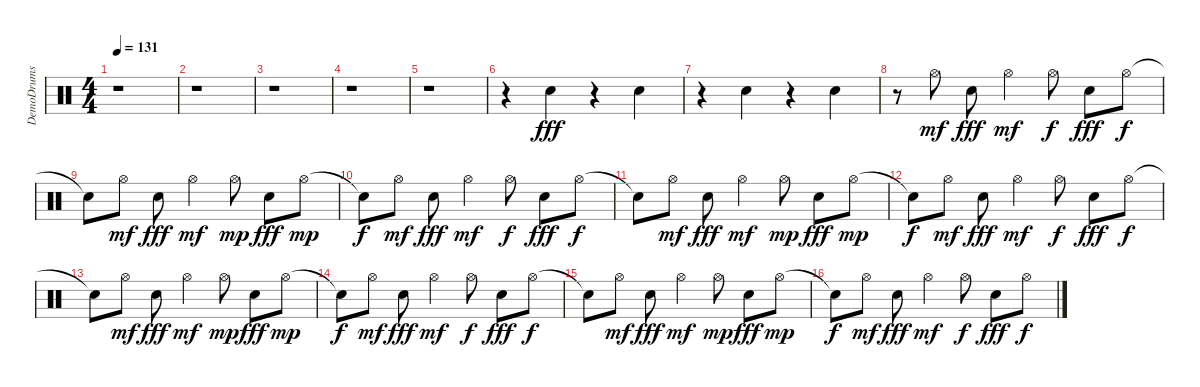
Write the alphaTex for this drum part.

\track ("DemoDrums" "DemoDrums") {instrument percussion}
\staff {score}
\articulation defaults
\ts (4 4)
\tempo 131
\clef neutral
\ks c
r.1{dy f} |
r.1 |
r.1 |
r.1 |
r.1 |
r.4 "Electric Snare (hit)".4{dy fff} r.4 "Electric Snare (hit)".4 |
r.4 "Electric Snare (hit)".4 r.4 "Electric Snare (hit)".4 |
r.8 "Hi-Hat (open)".8{dy mf} "Electric Snare (hit)".8{dy fff} "Hi-Hat (open)".4{dy mf} "Hi-Hat (open)".8{dy f} "Electric Snare (hit)".8{dy fff} "Hi-Hat (open)".8{dy f} |
"Snare (hit)"{t}.8 "Hi-Hat (open)".8{dy mf} "Electric Snare (hit)".8{dy fff} "Hi-Hat (open)".4{dy mf} "Hi-Hat (open)".8{dy mp} "Electric Snare (hit)".8{dy fff} "Hi-Hat (open)".8{dy mp} |
"Snare (hit)"{t}.8{dy f} "Hi-Hat (open)".8{dy mf} "Electric Snare (hit)".8{dy fff} "Hi-Hat (open)".4{dy mf} "Hi-Hat (open)".8{dy f} "Electric Snare (hit)".8{dy fff} "Hi-Hat (open)".8{dy f} |
"Snare (hit)"{t}.8 "Hi-Hat (open)".8{dy mf} "Electric Snare (hit)".8{dy fff} "Hi-Hat (open)".4{dy mf} "Hi-Hat (open)".8{dy mp} "Electric Snare (hit)".8{dy fff} "Hi-Hat (open)".8{dy mp} |
"Snare (hit)"{t}.8{dy f} "Hi-Hat (open)".8{dy mf} "Electric Snare (hit)".8{dy fff} "Hi-Hat (open)".4{dy mf} "Hi-Hat (open)".8{dy f} "Electric Snare (hit)".8{dy fff} "Hi-Hat (open)".8{dy f} |
"Snare (hit)"{t}.8 "Hi-Hat (open)".8{dy mf} "Electric Snare (hit)".8{dy fff} "Hi-Hat (open)".4{dy mf} "Hi-Hat (open)".8{dy mp} "Electric Snare (hit)".8{dy fff} "Hi-Hat (open)".8{dy mp} |
"Snare (hit)"{t}.8{dy f} "Hi-Hat (open)".8{dy mf} "Electric Snare (hit)".8{dy fff} "Hi-Hat (open)".4{dy mf} "Hi-Hat (open)".8{dy f} "Electric Snare (hit)".8{dy fff} "Hi-Hat (open)".8{dy f} |
"Snare (hit)"{t}.8 "Hi-Hat (open)".8{dy mf} "Electric Snare (hit)".8{dy fff} "Hi-Hat (open)".4{dy mf} "Hi-Hat (open)".8{dy mp} "Electric Snare (hit)".8{dy fff} "Hi-Hat (open)".8{dy mp} |
"Snare (hit)"{t}.8{dy f} "Hi-Hat (open)".8{dy mf} "Electric Snare (hit)".8{dy fff} "Hi-Hat (open)".4{dy mf} "Hi-Hat (open)".8{dy f} "Electric Snare (hit)".8{dy fff} "Hi-Hat (open)".8{dy f}
